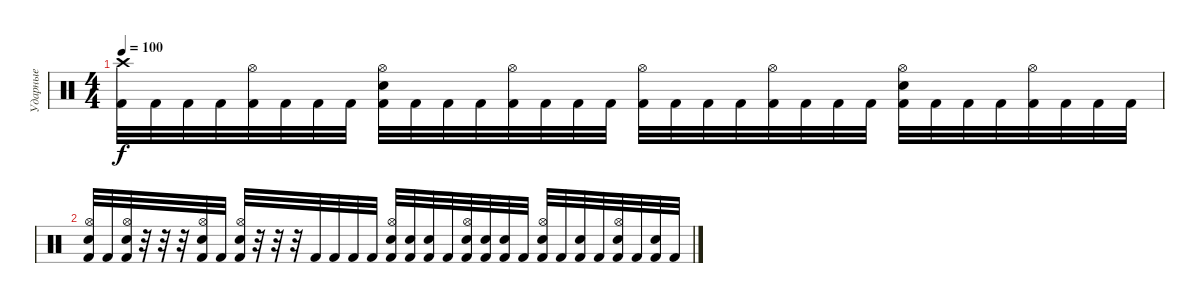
\track ("Ударные" "Ударные") {instrument percussion}
\staff {score}
\articulation defaults
\ts (4 4)
\tempo 100
\clef neutral
\ks c
("Crash high (hit)" "Kick (hit) 2").32{dy f} "Kick (hit) 2".32 "Kick (hit) 2".32 "Kick (hit) 2".32 ("Hi-Hat (open)" "Kick (hit) 2").32 "Kick (hit) 2".32 "Kick (hit) 2".32 "Kick (hit) 2".32 ("Hi-Hat (open)" "Snare (hit) 2" "Kick (hit) 2").32 "Kick (hit) 2".32 "Kick (hit) 2".32 "Kick (hit) 2".32 ("Hi-Hat (open)" "Kick (hit) 2").32 "Kick (hit) 2".32 "Kick (hit) 2".32 "Kick (hit) 2".32 ("Hi-Hat (open)" "Kick (hit) 2").32 "Kick (hit) 2".32 "Kick (hit) 2".32 "Kick (hit) 2".32 ("Hi-Hat (open)" "Kick (hit) 2").32 "Kick (hit) 2".32 "Kick (hit) 2".32 "Kick (hit) 2".32 ("Hi-Hat (open)" "Snare (hit) 2" "Kick (hit) 2").32 "Kick (hit) 2".32 "Kick (hit) 2".32 "Kick (hit) 2".32 ("Hi-Hat (open)" "Kick (hit) 2").32 "Kick (hit) 2".32 "Kick (hit) 2".32 "Kick (hit) 2".32 |
("Hi-Hat (open)" "Snare (hit) 2" "Kick (hit) 2").32 "Kick (hit) 2".32 ("Hi-Hat (open)" "Snare (hit) 2" "Kick (hit) 2").32 r.32 r.32 r.32 ("Hi-Hat (open)" "Snare (hit) 2" "Kick (hit) 2").32 "Kick (hit) 2".32 ("Hi-Hat (open)" "Snare (hit) 2" "Kick (hit) 2").32 r.32 r.32 r.32 "Kick (hit) 2".32 "Kick (hit) 2".32 "Kick (hit) 2".32 "Kick (hit) 2".32 ("Hi-Hat (open)" "Snare (hit) 2" "Kick (hit) 2").32 ("Snare (hit) 2" "Kick (hit) 2").32 ("Snare (hit) 2" "Kick (hit) 2").32 "Kick (hit) 2".32 ("Hi-Hat (open)" "Snare (hit) 2" "Kick (hit) 2").32 ("Snare (hit) 2" "Kick (hit) 2").32 ("Snare (hit) 2" "Kick (hit) 2").32 "Kick (hit) 2".32 ("Hi-Hat (open)" "Snare (hit) 2" "Kick (hit) 2").32 "Kick (hit) 2".32 ("Snare (hit) 2" "Kick (hit) 2").32 "Kick (hit) 2".32 ("Hi-Hat (open)" "Snare (hit) 2" "Kick (hit) 2").32 "Kick (hit) 2".32 ("Snare (hit) 2" "Kick (hit) 2").32 "Kick (hit) 2".32
